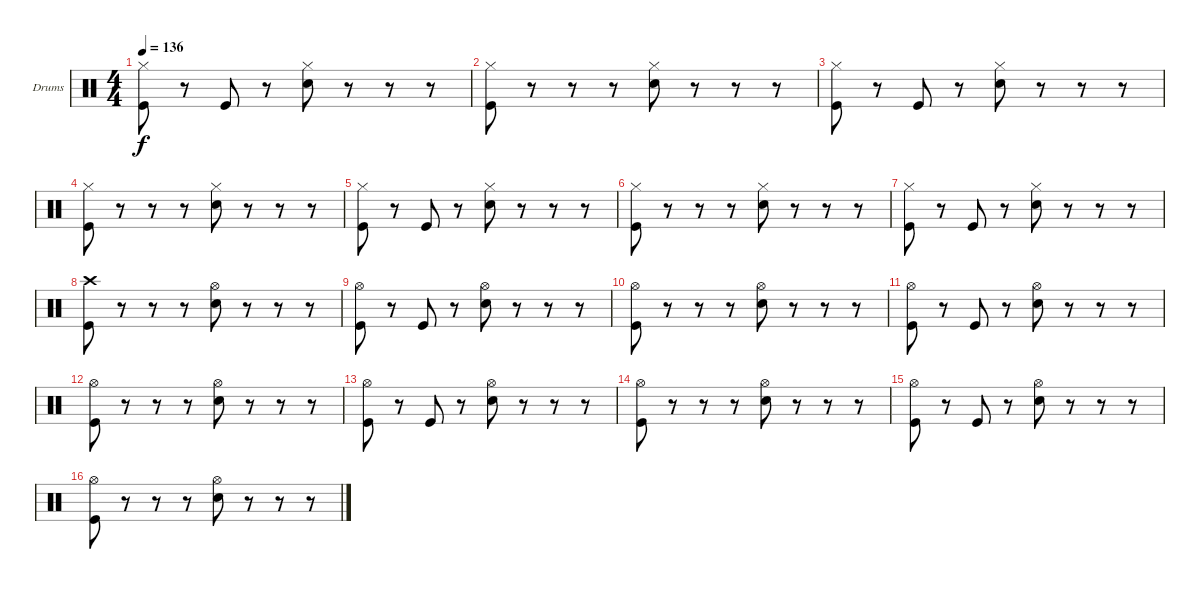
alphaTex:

\defaultSystemsLayout 4
\bracketExtendMode groupsimilarinstruments
\firstSystemTrackNameOrientation horizontal
\otherSystemsTrackNameOrientation horizontal
\track ("Барабаны" "Drums") {instrument percussion}
\staff {score}
\articulation defaults
\ts (4 4)
\tempo 136
\clef neutral
\ks c
("Hi-Hat (closed)" "Kick (hit)").8{dy f} r.8 "Kick (hit)".8 r.8 ("Hi-Hat (closed)" "Snare (hit) 2").8 r.8 r.8 r.8 |
("Hi-Hat (closed)" "Kick (hit)").8 r.8 r.8 r.8 ("Hi-Hat (closed)" "Snare (hit) 2").8 r.8 r.8 r.8 |
("Hi-Hat (closed)" "Kick (hit)").8 r.8 "Kick (hit)".8 r.8 ("Hi-Hat (closed)" "Snare (hit) 2").8 r.8 r.8 r.8 |
("Hi-Hat (closed)" "Kick (hit)").8 r.8 r.8 r.8 ("Hi-Hat (closed)" "Snare (hit) 2").8 r.8 r.8 r.8 |
("Hi-Hat (closed)" "Kick (hit)").8 r.8 "Kick (hit)".8 r.8 ("Hi-Hat (closed)" "Snare (hit) 2").8 r.8 r.8 r.8 |
("Hi-Hat (closed)" "Kick (hit)").8 r.8 r.8 r.8 ("Hi-Hat (closed)" "Snare (hit) 2").8 r.8 r.8 r.8 |
("Hi-Hat (closed)" "Kick (hit)").8 r.8 "Kick (hit)".8 r.8 ("Hi-Hat (closed)" "Snare (hit) 2").8 r.8 r.8 r.8 |
("Crash high (hit)" "Kick (hit)").8 r.8 r.8 r.8 ("Hi-Hat (open)" "Snare (hit) 2").8 r.8 r.8 r.8 |
("Hi-Hat (open)" "Kick (hit)").8 r.8 "Kick (hit)".8 r.8 ("Hi-Hat (open)" "Snare (hit) 2").8 r.8 r.8 r.8 |
("Hi-Hat (open)" "Kick (hit)").8 r.8 r.8 r.8 ("Hi-Hat (open)" "Snare (hit) 2").8 r.8 r.8 r.8 |
("Hi-Hat (open)" "Kick (hit)").8 r.8 "Kick (hit)".8 r.8 ("Hi-Hat (open)" "Snare (hit) 2").8 r.8 r.8 r.8 |
("Hi-Hat (open)" "Kick (hit)").8 r.8 r.8 r.8 ("Hi-Hat (open)" "Snare (hit) 2").8 r.8 r.8 r.8 |
("Hi-Hat (open)" "Kick (hit)").8 r.8 "Kick (hit)".8 r.8 ("Hi-Hat (open)" "Snare (hit) 2").8 r.8 r.8 r.8 |
("Hi-Hat (open)" "Kick (hit)").8 r.8 r.8 r.8 ("Hi-Hat (open)" "Snare (hit) 2").8 r.8 r.8 r.8 |
("Hi-Hat (open)" "Kick (hit)").8 r.8 "Kick (hit)".8 r.8 ("Hi-Hat (open)" "Snare (hit) 2").8 r.8 r.8 r.8 |
("Hi-Hat (open)" "Kick (hit)").8 r.8 r.8 r.8 ("Hi-Hat (open)" "Snare (hit) 2").8 r.8 r.8 r.8
